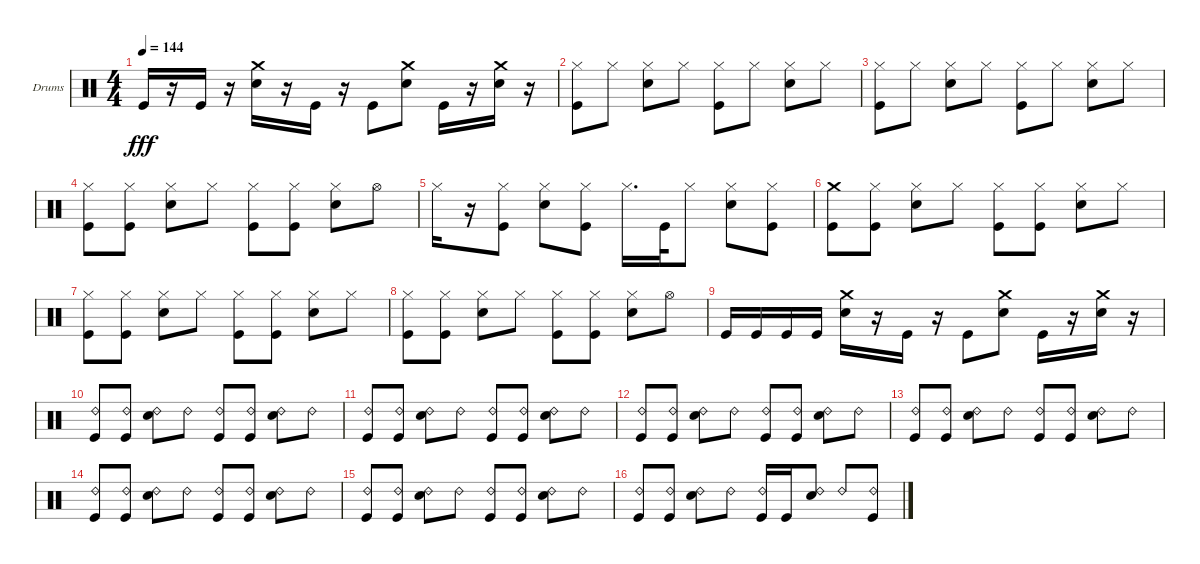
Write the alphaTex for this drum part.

\bracketExtendMode groupsimilarinstruments
\firstSystemTrackNameOrientation horizontal
\otherSystemsTrackNameOrientation horizontal
\track ("Drumkit" "Drums") {instrument percussion}
\staff {score}
\articulation defaults
\ts (4 4)
\tempo 144
\clef neutral
\ks c "Kick (hit)".16{dy fff}
r.16 "Kick (hit)".16 r.16 ("Snare (hit) 2" "Crash medium (hit)").16 r.16 "Kick (hit)".16 r.16 "Kick (hit)".8 ("Snare (hit) 2" "Crash medium (hit)").8 "Kick (hit)".16 r.16 ("Snare (hit) 2" "Crash medium (hit)").16 r.16 |
("Hi-Hat (closed)" "Kick (hit)").8 "Hi-Hat (closed)".8 ("Snare (hit) 2" "Hi-Hat (closed)").8 "Hi-Hat (closed)".8 ("Kick (hit)" "Hi-Hat (closed)").8 "Hi-Hat (closed)".8 ("Snare (hit) 2" "Hi-Hat (closed)").8 "Hi-Hat (closed)".8 |
("Kick (hit)" "Hi-Hat (closed)").8 "Hi-Hat (closed)".8 ("Snare (hit) 2" "Hi-Hat (closed)").8 "Hi-Hat (closed)".8 ("Kick (hit)" "Hi-Hat (closed)").8 "Hi-Hat (closed)".8 ("Snare (hit) 2" "Hi-Hat (closed)").8 "Hi-Hat (closed)".8 |
("Kick (hit)" "Hi-Hat (closed)").8 ("Kick (hit)" "Hi-Hat (closed)").8 ("Snare (hit) 2" "Hi-Hat (closed)").8 "Hi-Hat (closed)".8 ("Kick (hit)" "Hi-Hat (closed)").8 ("Kick (hit)" "Hi-Hat (closed)").8 ("Snare (hit) 2" "Hi-Hat (closed)").8 "Hi-Hat (open)".8 |
"Hi-Hat (closed)".16 r.16 ("Kick (hit)" "Hi-Hat (closed)").8 ("Snare (hit) 2" "Hi-Hat (closed)").8 ("Hi-Hat (closed)" "Kick (hit)").8 "Hi-Hat (closed)".16{d} "Kick (hit)".32 "Hi-Hat (closed)".8 ("Snare (hit) 2" "Hi-Hat (closed)").8 ("Hi-Hat (closed)" "Kick (hit)").8 |
("Kick (hit)" "Crash medium (hit)").8 ("Kick (hit)" "Hi-Hat (closed)").8 ("Snare (hit) 2" "Hi-Hat (closed)").8 "Hi-Hat (closed)".8 ("Kick (hit)" "Hi-Hat (closed)").8 ("Kick (hit)" "Hi-Hat (closed)").8 ("Snare (hit) 2" "Hi-Hat (closed)").8 "Hi-Hat (closed)".8 |
("Kick (hit)" "Hi-Hat (closed)").8 ("Kick (hit)" "Hi-Hat (closed)").8 ("Snare (hit) 2" "Hi-Hat (closed)").8 "Hi-Hat (closed)".8 ("Kick (hit)" "Hi-Hat (closed)").8 ("Kick (hit)" "Hi-Hat (closed)").8 ("Snare (hit) 2" "Hi-Hat (closed)").8 "Hi-Hat (closed)".8 |
("Hi-Hat (closed)" "Kick (hit)").8 ("Kick (hit)" "Hi-Hat (closed)").8 ("Snare (hit) 2" "Hi-Hat (closed)").8 "Hi-Hat (closed)".8 ("Kick (hit)" "Hi-Hat (closed)").8 ("Kick (hit)" "Hi-Hat (closed)").8 ("Snare (hit) 2" "Hi-Hat (closed)").8 "Hi-Hat (open)".8 |
"Kick (hit)".16 "Kick (hit)".16 "Kick (hit)".16 "Kick (hit)".16 ("Snare (hit) 2" "Crash medium (hit)").16 r.16 "Kick (hit)".16 r.16 "Kick (hit)".8 ("Snare (hit) 2" "Crash medium (hit)").8 "Kick (hit)".16 r.16 ("Snare (hit) 2" "Crash medium (hit)").16 r.16 |
("Ride (bell) 2" "Kick (hit)").8 ("Kick (hit)" "Ride (bell) 2").8 ("Snare (hit) 2" "Ride (bell) 2").8 "Ride (bell) 2".8 ("Kick (hit)" "Ride (bell) 2").8 ("Kick (hit)" "Ride (bell) 2").8 ("Snare (hit) 2" "Ride (bell) 2").8 "Ride (bell) 2".8 |
("Ride (bell) 2" "Kick (hit)").8 ("Kick (hit)" "Ride (bell) 2").8 ("Snare (hit) 2" "Ride (bell) 2").8 "Ride (bell) 2".8 ("Kick (hit)" "Ride (bell) 2").8 ("Kick (hit)" "Ride (bell) 2").8 ("Snare (hit) 2" "Ride (bell) 2").8 "Ride (bell) 2".8 |
("Ride (bell) 2" "Kick (hit)").8 ("Kick (hit)" "Ride (bell) 2").8 ("Snare (hit) 2" "Ride (bell) 2").8 "Ride (bell) 2".8 ("Kick (hit)" "Ride (bell) 2").8 ("Kick (hit)" "Ride (bell) 2").8 ("Snare (hit) 2" "Ride (bell) 2").8 "Ride (bell) 2".8 |
("Ride (bell) 2" "Kick (hit)").8 ("Kick (hit)" "Ride (bell) 2").8 ("Snare (hit) 2" "Ride (bell) 2").8 "Ride (bell) 2".8 ("Kick (hit)" "Ride (bell) 2").8 ("Kick (hit)" "Ride (bell) 2").8 ("Snare (hit) 2" "Ride (bell) 2").8 "Ride (bell) 2".8 |
("Ride (bell) 2" "Kick (hit)").8 ("Kick (hit)" "Ride (bell) 2").8 ("Snare (hit) 2" "Ride (bell) 2").8 "Ride (bell) 2".8 ("Kick (hit)" "Ride (bell) 2").8 ("Kick (hit)" "Ride (bell) 2").8 ("Snare (hit) 2" "Ride (bell) 2").8 "Ride (bell) 2".8 |
("Kick (hit)" "Ride (bell) 2").8 ("Kick (hit)" "Ride (bell) 2").8 ("Snare (hit) 2" "Ride (bell) 2").8 "Ride (bell) 2".8 ("Kick (hit)" "Ride (bell) 2").8 ("Kick (hit)" "Ride (bell) 2").8 ("Snare (hit) 2" "Ride (bell) 2").8 "Ride (bell) 2".8 |
("Kick (hit)" "Ride (bell) 2").8 ("Kick (hit)" "Ride (bell) 2").8 ("Snare (hit) 2" "Ride (bell) 2").8 "Ride (bell) 2".8 ("Ride (bell) 2" "Kick (hit)").16 "Kick (hit)".16 ("Ride (bell) 2" "Snare (hit) 2").8 "Ride (bell) 2".8 ("Ride (bell) 2" "Kick (hit)").8
